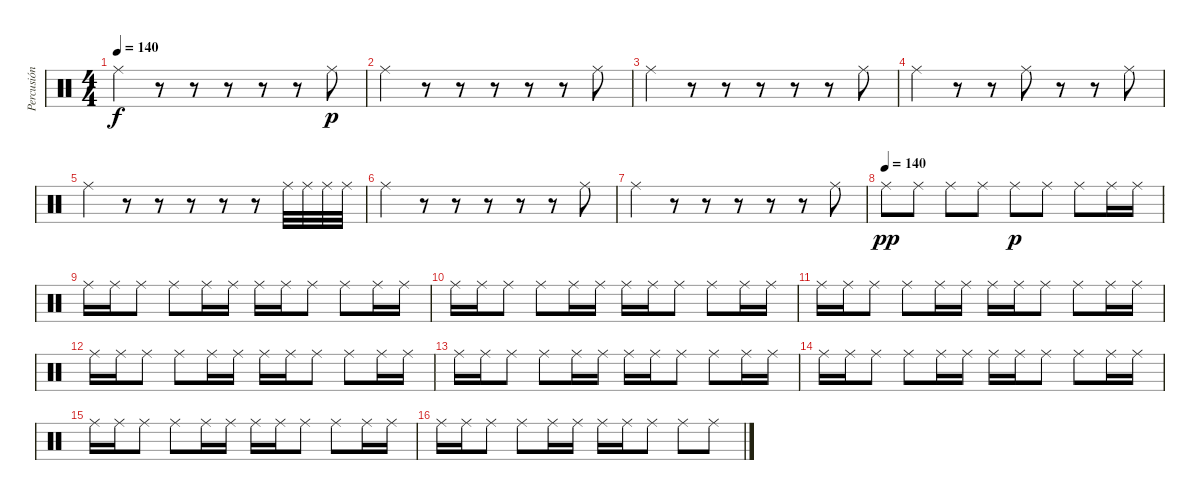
\track ("Percusión" "Percusión") {instrument percussion}
\staff {score}
\articulation defaults
\ts (4 4)
\tempo 140
\clef neutral
\ks c "Ride (middle)".4{dy f}
r.8 r.8 r.8 r.8 r.8 "Ride (middle)".8{dy p} |
"Ride (middle)".4 r.8 r.8 r.8 r.8 r.8 "Ride (middle)".8 |
"Ride (middle)".4 r.8 r.8 r.8 r.8 r.8 "Ride (middle)".8 |
"Ride (middle)".4 r.8 r.8 "Ride (middle)".8 r.8 r.8 "Ride (middle)".8 |
"Ride (middle)".4 r.8 r.8 r.8 r.8 r.8 "Ride (middle)".32 "Ride (middle)".32 "Ride (middle)".32 "Ride (middle)".32 |
"Ride (middle)".4 r.8 r.8 r.8 r.8 r.8 "Ride (middle)".8 |
"Ride (middle)".4 r.8 r.8 r.8 r.8 r.8 "Ride (middle)".8 |
\tempo (140)
"Ride (middle)".8{dy pp} "Ride (middle)".8 "Ride (middle)".8 "Ride (middle)".8 "Ride (middle)".8{dy p} "Ride (middle)".8 "Ride (middle)".8 "Ride (middle)".16 "Ride (middle)".16 |
"Ride (middle)".16 "Ride (middle)".16 "Ride (middle)".8 "Ride (middle)".8 "Ride (middle)".16 "Ride (middle)".16 "Ride (middle)".16 "Ride (middle)".16 "Ride (middle)".8 "Ride (middle)".8 "Ride (middle)".16 "Ride (middle)".16 |
"Ride (middle)".16 "Ride (middle)".16 "Ride (middle)".8 "Ride (middle)".8 "Ride (middle)".16 "Ride (middle)".16 "Ride (middle)".16 "Ride (middle)".16 "Ride (middle)".8 "Ride (middle)".8 "Ride (middle)".16 "Ride (middle)".16 |
"Ride (middle)".16 "Ride (middle)".16 "Ride (middle)".8 "Ride (middle)".8 "Ride (middle)".16 "Ride (middle)".16 "Ride (middle)".16 "Ride (middle)".16 "Ride (middle)".8 "Ride (middle)".8 "Ride (middle)".16 "Ride (middle)".16 |
"Ride (middle)".16 "Ride (middle)".16 "Ride (middle)".8 "Ride (middle)".8 "Ride (middle)".16 "Ride (middle)".16 "Ride (middle)".16 "Ride (middle)".16 "Ride (middle)".8 "Ride (middle)".8 "Ride (middle)".16 "Ride (middle)".16 |
"Ride (middle)".16 "Ride (middle)".16 "Ride (middle)".8 "Ride (middle)".8 "Ride (middle)".16 "Ride (middle)".16 "Ride (middle)".16 "Ride (middle)".16 "Ride (middle)".8 "Ride (middle)".8 "Ride (middle)".16 "Ride (middle)".16 |
"Ride (middle)".16 "Ride (middle)".16 "Ride (middle)".8 "Ride (middle)".8 "Ride (middle)".16 "Ride (middle)".16 "Ride (middle)".16 "Ride (middle)".16 "Ride (middle)".8 "Ride (middle)".8 "Ride (middle)".16 "Ride (middle)".16 |
"Ride (middle)".16 "Ride (middle)".16 "Ride (middle)".8 "Ride (middle)".8 "Ride (middle)".16 "Ride (middle)".16 "Ride (middle)".16 "Ride (middle)".16 "Ride (middle)".8 "Ride (middle)".8 "Ride (middle)".16 "Ride (middle)".16 |
"Ride (middle)".16 "Ride (middle)".16 "Ride (middle)".8 "Ride (middle)".8 "Ride (middle)".16 "Ride (middle)".16 "Ride (middle)".16 "Ride (middle)".16 "Ride (middle)".8 "Ride (middle)".8 "Ride (middle)".8
